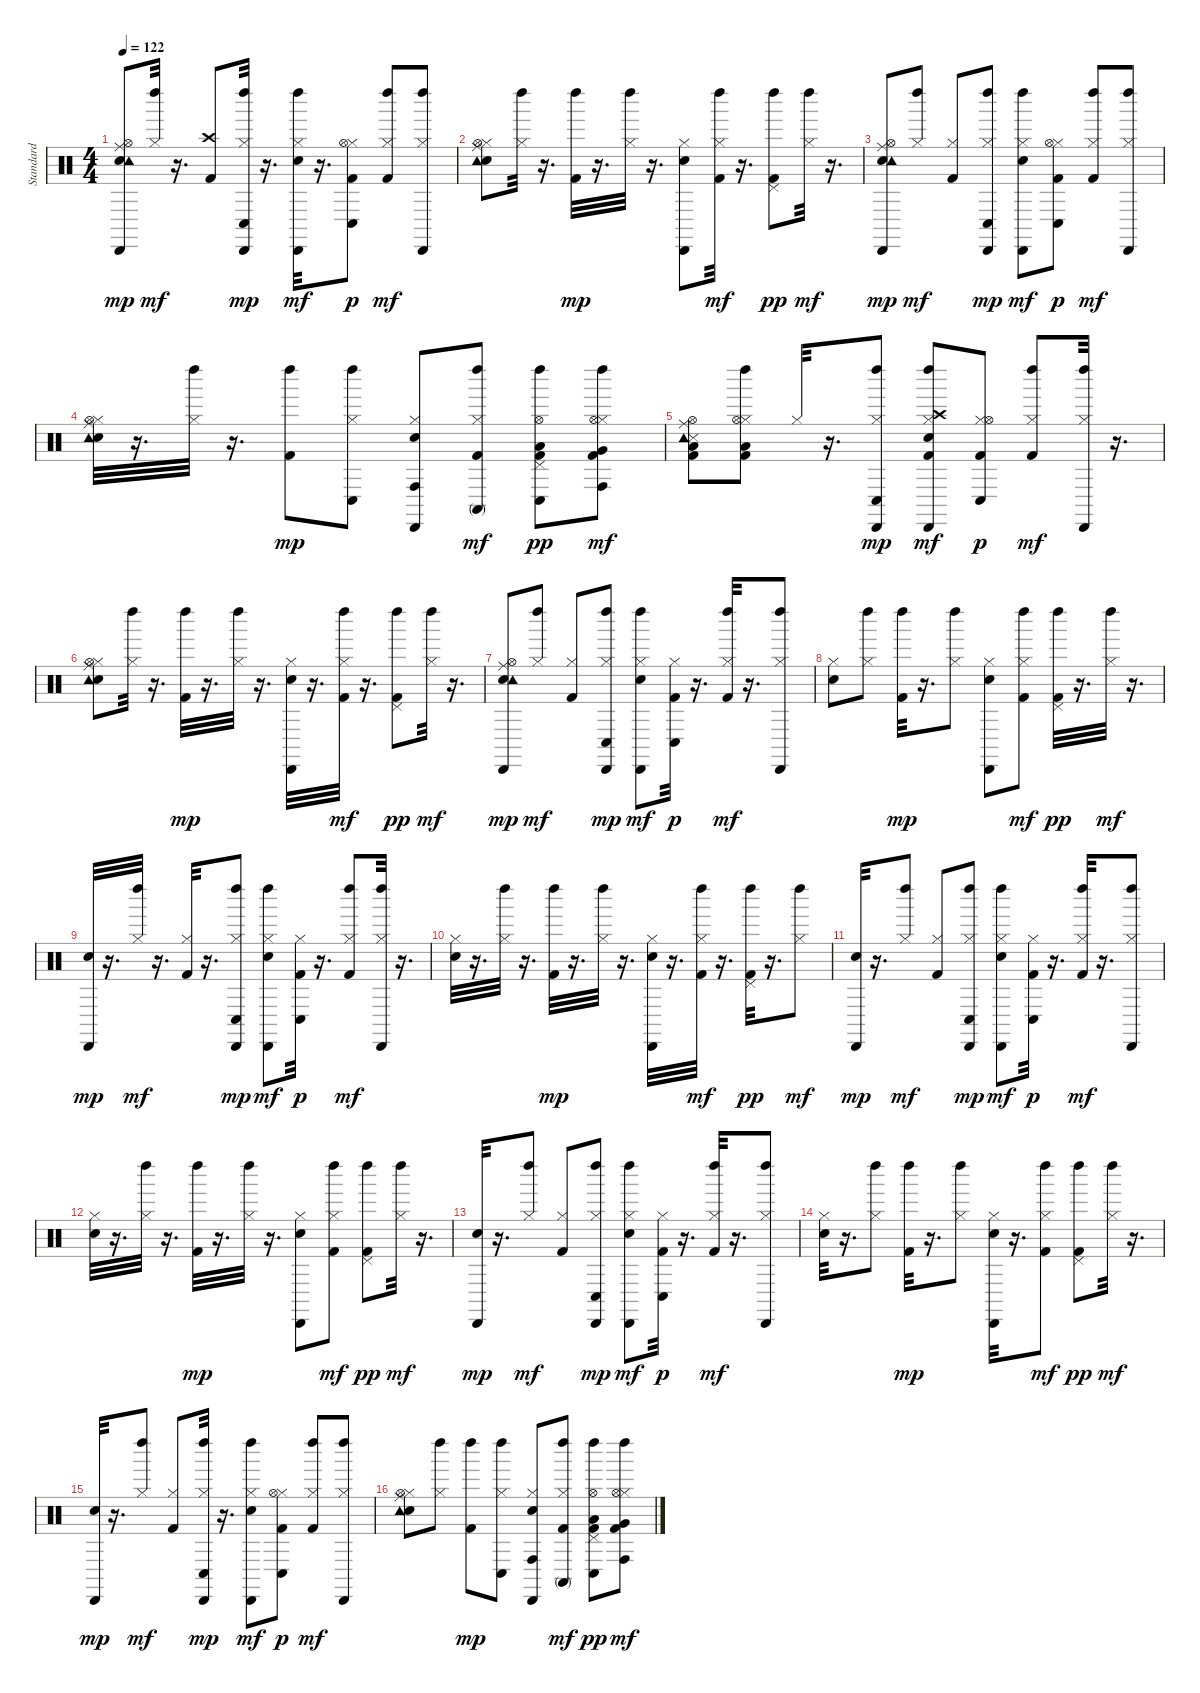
\track (" Standard" " Standard") {instrument percussion}
\staff {score}
\articulation defaults
\ts (4 4)
\tempo 122
\clef neutral
\ks c
("Snare (hit) 2" "Hi-Hat (open)" "Ride (middle)" "Tambourine (hit)" "Cabasa (hit)").8{dy mp} ("Hi-Hat (closed)" "Left Maraca (hit)").32{dy mf} r.16{d} ("Kick (hit) 2" "Crash high (hit)").8 ("Hi-Hat (closed)" "Conga low (hit)" "Cabasa (hit)" "Left Maraca (hit)").32{dy mp} r.16{d} ("Snare (hit) 2" "Hi-Hat (closed)" "Cabasa (hit)" "Left Maraca (hit)").32{dy mf} r.16{d} ("Kick (hit) 2" "Hi-Hat (closed)" "Hi-Hat (open)" "Conga low (hit)").8{dy p} ("Kick (hit) 2" "Hi-Hat (closed)" "Left Maraca (hit)").8{dy mf} ("Hi-Hat (closed)" "Cabasa (hit)" "Left Maraca (hit)").8 |
("Snare (hit) 2" "Hi-Hat (closed)" "Hi-Hat (open)" "Ride (middle)" "Tambourine (hit)").8 ("Hi-Hat (closed)" "Left Maraca (hit)").32 r.16{d} ("Kick (hit) 2" "Left Maraca (hit)").32{dy mp} r.16{d} ("Hi-Hat (closed)" "Left Maraca (hit)").32 r.16{d} ("Snare (hit) 2" "Hi-Hat (closed)" "Cabasa (hit)").8 ("Kick (hit) 2" "Hi-Hat (closed)" "Left Maraca (hit)").32{dy mf} r.16{d} ("Kick (hit) 2" "Pedal Hi-Hat (hit)" "Left Maraca (hit)").8{dy pp} ("Hi-Hat (closed)" "Left Maraca (hit)").32{dy mf} r.16{d} |
("Snare (hit) 2" "Hi-Hat (open)" "Ride (middle)" "Tambourine (hit)" "Cabasa (hit)").8{dy mp} ("Hi-Hat (closed)" "Left Maraca (hit)").8{dy mf} ("Kick (hit) 2" "Hi-Hat (closed)").8 ("Hi-Hat (closed)" "Conga low (hit)" "Cabasa (hit)" "Left Maraca (hit)").8{dy mp} ("Snare (hit) 2" "Hi-Hat (closed)" "Cabasa (hit)" "Left Maraca (hit)").8{dy mf} ("Kick (hit) 2" "Hi-Hat (closed)" "Hi-Hat (open)" "Conga low (hit)").8{dy p} ("Kick (hit) 2" "Hi-Hat (closed)" "Left Maraca (hit)").8{dy mf} ("Hi-Hat (closed)" "Cabasa (hit)" "Left Maraca (hit)").8 |
("Snare (hit) 2" "Hi-Hat (closed)" "Hi-Hat (open)" "Ride (middle)" "Tambourine (hit)").32 r.16{d} ("Hi-Hat (closed)" "Left Maraca (hit)").32 r.16{d} ("Kick (hit) 2" "Left Maraca (hit)").8{dy mp} ("Hi-Hat (closed)" "Conga low (hit)" "Left Maraca (hit)").8 ("Snare (hit) 2" "Hi-Hat (closed)" "Conga high (hit)" "Cabasa (hit)").8 ("Kick (hit) 2" "Hi-Hat (closed)" "Conga high (mute)" "Left Maraca (hit)").8{dy mf} ("Kick (hit) 2" "Low Floor Tom (hit)" "Pedal Hi-Hat (hit)" "Hi-Hat (open)" "Conga low (hit)" "Left Maraca (hit)").8{dy pp} ("Kick (hit) 2" "Hi-Hat (closed)" "Very Low Tom (hit)" "Hi-Hat (open)" "Conga high (hit)" "Left Maraca (hit)").8{dy mf} |
("Kick (hit) 2" "Snare (side stick) 3" "Low Floor Tom (hit)" "Hi-Hat (open)" "Ride (middle)" "Tambourine (hit)").8 ("Kick (hit) 2" "Low Floor Tom (hit)" "Hi-Hat (closed)" "Hi-Hat (open)" "Left Maraca (hit)").8 "Hi-Hat (closed)".32 r.16{d} ("Hi-Hat (closed)" "Conga low (hit)" "Cabasa (hit)" "Left Maraca (hit)").8{dy mp} ("Kick (hit) 2" "Snare (hit) 2" "Hi-Hat (closed)" "Crash high (hit)" "Cabasa (hit)" "Left Maraca (hit)").8{dy mf} ("Kick (hit) 2" "Hi-Hat (closed)" "Hi-Hat (open)" "Conga low (hit)").8{dy p} ("Kick (hit) 2" "Hi-Hat (closed)" "Left Maraca (hit)").8{dy mf} ("Hi-Hat (closed)" "Cabasa (hit)" "Left Maraca (hit)").32 r.16{d} |
("Snare (hit) 2" "Hi-Hat (closed)" "Hi-Hat (open)" "Ride (middle)" "Tambourine (hit)").8 ("Hi-Hat (closed)" "Left Maraca (hit)").32 r.16{d} ("Kick (hit) 2" "Left Maraca (hit)").32{dy mp} r.16{d} ("Hi-Hat (closed)" "Left Maraca (hit)").32 r.16{d} ("Snare (hit) 2" "Hi-Hat (closed)" "Cabasa (hit)").32 r.16{d} ("Kick (hit) 2" "Hi-Hat (closed)" "Left Maraca (hit)").32{dy mf} r.16{d} ("Kick (hit) 2" "Pedal Hi-Hat (hit)" "Left Maraca (hit)").8{dy pp} ("Hi-Hat (closed)" "Left Maraca (hit)").32{dy mf} r.16{d} |
("Snare (hit) 2" "Hi-Hat (open)" "Ride (middle)" "Tambourine (hit)" "Cabasa (hit)").8{dy mp} ("Hi-Hat (closed)" "Left Maraca (hit)").8{dy mf} ("Kick (hit) 2" "Hi-Hat (closed)").8 ("Hi-Hat (closed)" "Conga low (hit)" "Cabasa (hit)" "Left Maraca (hit)").8{dy mp} ("Snare (hit) 2" "Hi-Hat (closed)" "Cabasa (hit)" "Left Maraca (hit)").8{dy mf} ("Kick (hit) 2" "Hi-Hat (closed)" "Conga low (hit)").32{dy p} r.16{d} ("Kick (hit) 2" "Hi-Hat (closed)" "Left Maraca (hit)").32{dy mf} r.16{d} ("Hi-Hat (closed)" "Cabasa (hit)" "Left Maraca (hit)").8 |
("Snare (hit) 2" "Hi-Hat (closed)").8 ("Hi-Hat (closed)" "Left Maraca (hit)").8 ("Kick (hit) 2" "Left Maraca (hit)").32{dy mp} r.16{d} ("Hi-Hat (closed)" "Left Maraca (hit)").8 ("Snare (hit) 2" "Hi-Hat (closed)" "Cabasa (hit)").8 ("Kick (hit) 2" "Hi-Hat (closed)" "Left Maraca (hit)").8{dy mf} ("Kick (hit) 2" "Pedal Hi-Hat (hit)" "Left Maraca (hit)").32{dy pp} r.16{d} ("Hi-Hat (closed)" "Left Maraca (hit)").32{dy mf} r.16{d} |
("Snare (hit) 2" "Cabasa (hit)").32{dy mp} r.16{d} ("Hi-Hat (closed)" "Left Maraca (hit)").32{dy mf} r.16{d} ("Kick (hit) 2" "Hi-Hat (closed)").32 r.16{d} ("Hi-Hat (closed)" "Conga low (hit)" "Cabasa (hit)" "Left Maraca (hit)").8{dy mp} ("Snare (hit) 2" "Hi-Hat (closed)" "Cabasa (hit)" "Left Maraca (hit)").8{dy mf} ("Kick (hit) 2" "Hi-Hat (closed)" "Conga low (hit)").32{dy p} r.16{d} ("Kick (hit) 2" "Hi-Hat (closed)" "Left Maraca (hit)").8{dy mf} ("Hi-Hat (closed)" "Cabasa (hit)" "Left Maraca (hit)").32 r.16{d} |
("Snare (hit) 2" "Hi-Hat (closed)").32 r.16{d} ("Hi-Hat (closed)" "Left Maraca (hit)").32 r.16{d} ("Kick (hit) 2" "Left Maraca (hit)").32{dy mp} r.16{d} ("Hi-Hat (closed)" "Left Maraca (hit)").32 r.16{d} ("Snare (hit) 2" "Hi-Hat (closed)" "Cabasa (hit)").32 r.16{d} ("Kick (hit) 2" "Hi-Hat (closed)" "Left Maraca (hit)").32{dy mf} r.16{d} ("Kick (hit) 2" "Pedal Hi-Hat (hit)" "Left Maraca (hit)").32{dy pp} r.16{d} ("Hi-Hat (closed)" "Left Maraca (hit)").8{dy mf} |
("Snare (hit) 2" "Cabasa (hit)").32{dy mp} r.16{d} ("Hi-Hat (closed)" "Left Maraca (hit)").8{dy mf} ("Kick (hit) 2" "Hi-Hat (closed)").8 ("Hi-Hat (closed)" "Conga low (hit)" "Cabasa (hit)" "Left Maraca (hit)").8{dy mp} ("Snare (hit) 2" "Hi-Hat (closed)" "Cabasa (hit)" "Left Maraca (hit)").8{dy mf} ("Kick (hit) 2" "Hi-Hat (closed)" "Conga low (hit)").32{dy p} r.16{d} ("Kick (hit) 2" "Hi-Hat (closed)" "Left Maraca (hit)").32{dy mf} r.16{d} ("Hi-Hat (closed)" "Cabasa (hit)" "Left Maraca (hit)").8 |
("Snare (hit) 2" "Hi-Hat (closed)").32 r.16{d} ("Hi-Hat (closed)" "Left Maraca (hit)").32 r.16{d} ("Kick (hit) 2" "Left Maraca (hit)").32{dy mp} r.16{d} ("Hi-Hat (closed)" "Left Maraca (hit)").32 r.16{d} ("Snare (hit) 2" "Hi-Hat (closed)" "Cabasa (hit)").8 ("Kick (hit) 2" "Hi-Hat (closed)" "Left Maraca (hit)").8{dy mf} ("Kick (hit) 2" "Pedal Hi-Hat (hit)" "Left Maraca (hit)").8{dy pp} ("Hi-Hat (closed)" "Left Maraca (hit)").32{dy mf} r.16{d} |
("Snare (hit) 2" "Cabasa (hit)").32{dy mp} r.16{d} ("Hi-Hat (closed)" "Left Maraca (hit)").8{dy mf} ("Kick (hit) 2" "Hi-Hat (closed)").8 ("Hi-Hat (closed)" "Conga low (hit)" "Cabasa (hit)" "Left Maraca (hit)").8{dy mp} ("Snare (hit) 2" "Hi-Hat (closed)" "Cabasa (hit)" "Left Maraca (hit)").8{dy mf} ("Kick (hit) 2" "Hi-Hat (closed)" "Conga low (hit)").32{dy p} r.16{d} ("Kick (hit) 2" "Hi-Hat (closed)" "Left Maraca (hit)").32{dy mf} r.16{d} ("Hi-Hat (closed)" "Cabasa (hit)" "Left Maraca (hit)").8 |
("Snare (hit) 2" "Hi-Hat (closed)").32 r.16{d} ("Hi-Hat (closed)" "Left Maraca (hit)").8 ("Kick (hit) 2" "Left Maraca (hit)").32{dy mp} r.16{d} ("Hi-Hat (closed)" "Left Maraca (hit)").8 ("Snare (hit) 2" "Hi-Hat (closed)" "Cabasa (hit)").32 r.16{d} ("Kick (hit) 2" "Hi-Hat (closed)" "Left Maraca (hit)").8{dy mf} ("Kick (hit) 2" "Pedal Hi-Hat (hit)" "Left Maraca (hit)").8{dy pp} ("Hi-Hat (closed)" "Left Maraca (hit)").32{dy mf} r.16{d} |
("Snare (hit) 2" "Cabasa (hit)").32{dy mp} r.16{d} ("Hi-Hat (closed)" "Left Maraca (hit)").8{dy mf} ("Kick (hit) 2" "Hi-Hat (closed)").8 ("Hi-Hat (closed)" "Conga low (hit)" "Cabasa (hit)" "Left Maraca (hit)").32{dy mp} r.16{d} ("Snare (hit) 2" "Hi-Hat (closed)" "Cabasa (hit)" "Left Maraca (hit)").8{dy mf} ("Kick (hit) 2" "Hi-Hat (closed)" "Hi-Hat (open)" "Conga low (hit)").8{dy p} ("Kick (hit) 2" "Hi-Hat (closed)" "Left Maraca (hit)").8{dy mf} ("Hi-Hat (closed)" "Cabasa (hit)" "Left Maraca (hit)").8 |
("Snare (hit) 2" "Hi-Hat (closed)" "Hi-Hat (open)" "Ride (middle)" "Tambourine (hit)").8 ("Hi-Hat (closed)" "Left Maraca (hit)").8 ("Kick (hit) 2" "Left Maraca (hit)").8{dy mp} ("Hi-Hat (closed)" "Conga low (hit)" "Left Maraca (hit)").8 ("Snare (hit) 2" "Hi-Hat (closed)" "Conga high (hit)" "Cabasa (hit)").8 ("Kick (hit) 2" "Hi-Hat (closed)" "Conga high (mute)" "Left Maraca (hit)").8{dy mf} ("Kick (hit) 2" "Low Floor Tom (hit)" "Pedal Hi-Hat (hit)" "Hi-Hat (open)" "Conga low (hit)" "Left Maraca (hit)").8{dy pp} ("Kick (hit) 2" "Hi-Hat (closed)" "Very Low Tom (hit)" "Hi-Hat (open)" "Conga high (hit)" "Left Maraca (hit)").8{dy mf}
